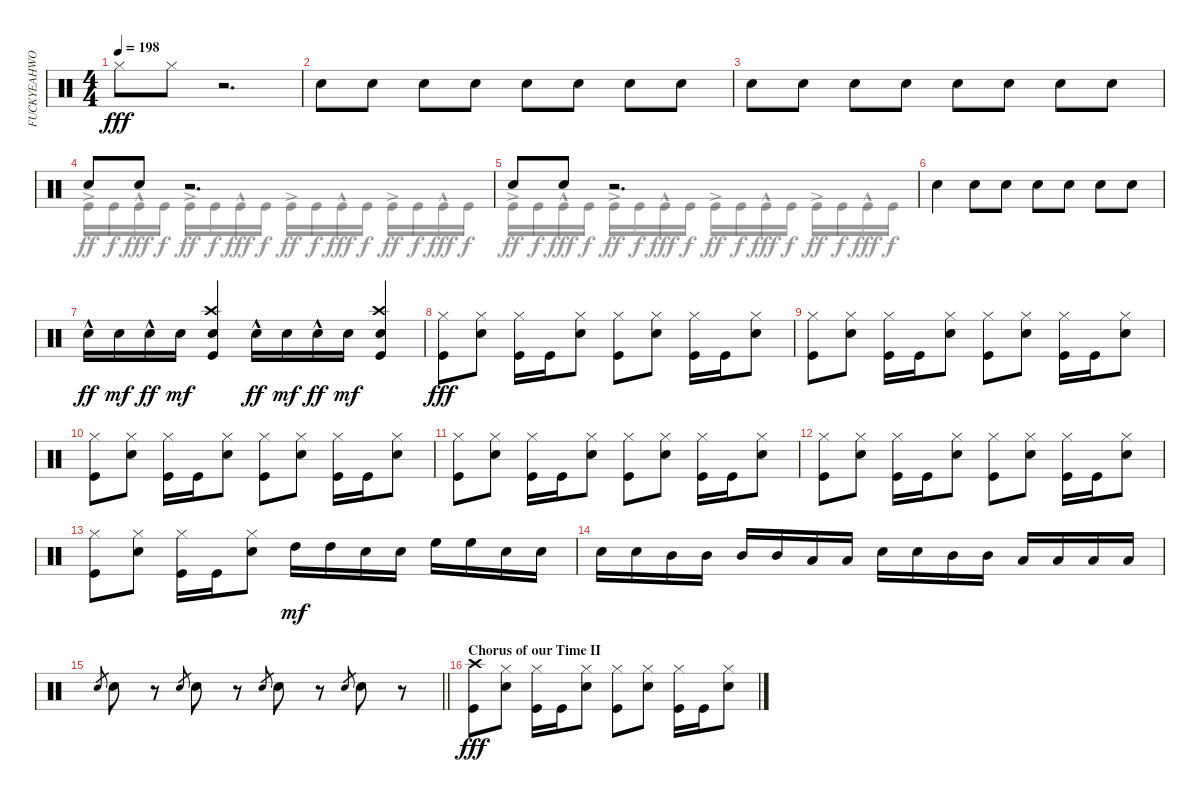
\track ("FUCKYEAHWOOTDAVEMACKINTOSH!(Percussion)" "FUCKYEAHWO") {instrument percussion}
\staff {score}
\articulation defaults
\voice
\ts (4 4)
\tempo 198
\clef neutral
\ks c "Hi-Hat (closed)".8{dy fff} "Hi-Hat (closed)".8
r.2{d} |
"Snare (hit) 2".8 "Snare (hit) 2".8 "Snare (hit) 2".8 "Snare (hit) 2".8 "Snare (hit) 2".8 "Snare (hit) 2".8 "Snare (hit) 2".8 "Snare (hit) 2".8 |
"Snare (hit) 2".8 "Snare (hit) 2".8 "Snare (hit) 2".8 "Snare (hit) 2".8 "Snare (hit) 2".8 "Snare (hit) 2".8 "Snare (hit) 2".8 "Snare (hit) 2".8 |
"Snare (hit) 2".8 "Snare (hit) 2".8 r.2{d} |
"Snare (hit) 2".8 "Snare (hit) 2".8 r.2{d} |
"Snare (hit) 2".4 "Snare (hit) 2".8 "Snare (hit) 2".8 "Snare (hit) 2".8 "Snare (hit) 2".8 "Snare (hit) 2".8 "Snare (hit) 2".8 |
"Snare (hit) 2"{hac}.16{dy ff} "Snare (hit) 2".16{dy mf} "Snare (hit) 2"{hac}.16{dy ff} "Snare (hit) 2".16{dy mf} ("Crash high (hit)" "Kick (hit)" "Snare (hit) 2").4 "Snare (hit) 2"{hac}.16{dy ff} "Snare (hit) 2".16{dy mf} "Snare (hit) 2"{hac}.16{dy ff} "Snare (hit) 2".16{dy mf} ("Crash high (hit)" "Kick (hit)" "Snare (hit) 2").4 |
("Kick (hit)" "Hi-Hat (closed)").8{dy fff} ("Snare (hit) 2" "Hi-Hat (closed)").8 ("Kick (hit)" "Hi-Hat (closed)").16 "Kick (hit)".16 ("Hi-Hat (closed)" "Snare (hit) 2").8 ("Kick (hit)" "Hi-Hat (closed)").8 ("Snare (hit) 2" "Hi-Hat (closed)").8 ("Kick (hit)" "Hi-Hat (closed)").16 "Kick (hit)".16 ("Snare (hit) 2" "Hi-Hat (closed)").8 |
("Kick (hit)" "Hi-Hat (closed)").8 ("Snare (hit) 2" "Hi-Hat (closed)").8 ("Kick (hit)" "Hi-Hat (closed)").16 "Kick (hit)".16 ("Hi-Hat (closed)" "Snare (hit) 2").8 ("Kick (hit)" "Hi-Hat (closed)").8 ("Snare (hit) 2" "Hi-Hat (closed)").8 ("Kick (hit)" "Hi-Hat (closed)").16 "Kick (hit)".16 ("Snare (hit) 2" "Hi-Hat (closed)").8 |
("Kick (hit)" "Hi-Hat (closed)").8 ("Snare (hit) 2" "Hi-Hat (closed)").8 ("Kick (hit)" "Hi-Hat (closed)").16 "Kick (hit)".16 ("Hi-Hat (closed)" "Snare (hit) 2").8 ("Kick (hit)" "Hi-Hat (closed)").8 ("Snare (hit) 2" "Hi-Hat (closed)").8 ("Kick (hit)" "Hi-Hat (closed)").16 "Kick (hit)".16 ("Snare (hit) 2" "Hi-Hat (closed)").8 |
("Kick (hit)" "Hi-Hat (closed)").8 ("Snare (hit) 2" "Hi-Hat (closed)").8 ("Kick (hit)" "Hi-Hat (closed)").16 "Kick (hit)".16 ("Hi-Hat (closed)" "Snare (hit) 2").8 ("Kick (hit)" "Hi-Hat (closed)").8 ("Snare (hit) 2" "Hi-Hat (closed)").8 ("Kick (hit)" "Hi-Hat (closed)").16 "Kick (hit)".16 ("Snare (hit) 2" "Hi-Hat (closed)").8 |
("Kick (hit)" "Hi-Hat (closed)").8 ("Snare (hit) 2" "Hi-Hat (closed)").8 ("Kick (hit)" "Hi-Hat (closed)").16 "Kick (hit)".16 ("Hi-Hat (closed)" "Snare (hit) 2").8 ("Kick (hit)" "Hi-Hat (closed)").8 ("Snare (hit) 2" "Hi-Hat (closed)").8 ("Kick (hit)" "Hi-Hat (closed)").16 "Kick (hit)".16 ("Snare (hit) 2" "Hi-Hat (closed)").8 |
("Kick (hit)" "Hi-Hat (closed)").8 ("Snare (hit) 2" "Hi-Hat (closed)").8 ("Kick (hit)" "Hi-Hat (closed)").16 "Kick (hit)".16 ("Hi-Hat (closed)" "Snare (hit) 2").8 "High Tom (hit)".16{dy mf} "High Tom (hit)".16 "Snare (hit) 2".16 "Snare (hit) 2".16 "High Floor Tom (hit)".16 "High Floor Tom (hit)".16 "Snare (hit) 2".16 "Snare (hit) 2".16 |
"Snare (hit) 2".16 "Snare (hit) 2".16 "Mid Tom (hit)".16 "Mid Tom (hit)".16 "Mid Tom (hit)".16 "Mid Tom (hit)".16 "Low Tom (hit)".16 "Low Tom (hit)".16 "Snare (hit) 2".16 "Snare (hit) 2".16 "Mid Tom (hit)".16 "Mid Tom (hit)".16 "Low Tom (hit)".16 "Low Tom (hit)".16 "Low Tom (hit)".16 "Low Tom (hit)".16 |
\barLineRight lightlight "Snare (hit) 2".8{gr} "Snare (hit) 2".8
r.8 "Snare (hit) 2".8{gr} "Snare (hit) 2".8 r.8 "Snare (hit) 2".8{gr} "Snare (hit) 2".8 r.8 "Snare (hit) 2".8{gr} "Snare (hit) 2".8 r.8 |
\section ("" "Chorus of our Time II")
("Kick (hit)" "Crash high (hit)").8{dy fff} ("Snare (hit) 2" "Hi-Hat (closed)").8 ("Kick (hit)" "Hi-Hat (closed)").16 "Kick (hit)".16 ("Hi-Hat (closed)" "Snare (hit) 2").8 ("Kick (hit)" "Hi-Hat (closed)").8 ("Snare (hit) 2" "Hi-Hat (closed)").8 ("Kick (hit)" "Hi-Hat (closed)").16 "Kick (hit)".16 ("Snare (hit) 2" "Hi-Hat (closed)").8
\voice
\clef neutral
\ottava regular
\simile none
\ks c
|
|
|
"Kick (hit)"{ac}.16{dy ff} "Kick (hit)".16{dy f} "Kick (hit)"{hac}.16{dy fff} "Kick (hit)".16{dy f} "Kick (hit)"{ac}.16{dy ff} "Kick (hit)".16{dy f} "Kick (hit)"{hac}.16{dy fff} "Kick (hit)".16{dy f} "Kick (hit)"{ac}.16{dy ff} "Kick (hit)".16{dy f} "Kick (hit)"{hac}.16{dy fff} "Kick (hit)".16{dy f} "Kick (hit)"{ac}.16{dy ff} "Kick (hit)".16{dy f} "Kick (hit)"{hac}.16{dy fff} "Kick (hit)".16{dy f} |
"Kick (hit)"{ac}.16{dy ff} "Kick (hit)".16{dy f} "Kick (hit)"{hac}.16{dy fff} "Kick (hit)".16{dy f} "Kick (hit)"{ac}.16{dy ff} "Kick (hit)".16{dy f} "Kick (hit)"{hac}.16{dy fff} "Kick (hit)".16{dy f} "Kick (hit)"{ac}.16{dy ff} "Kick (hit)".16{dy f} "Kick (hit)"{hac}.16{dy fff} "Kick (hit)".16{dy f} "Kick (hit)"{ac}.16{dy ff} "Kick (hit)".16{dy f} "Kick (hit)"{hac}.16{dy fff} "Kick (hit)".16{dy f} |
|
|
|
|
|
|
|
|
|
\barLineRight lightlight
|
